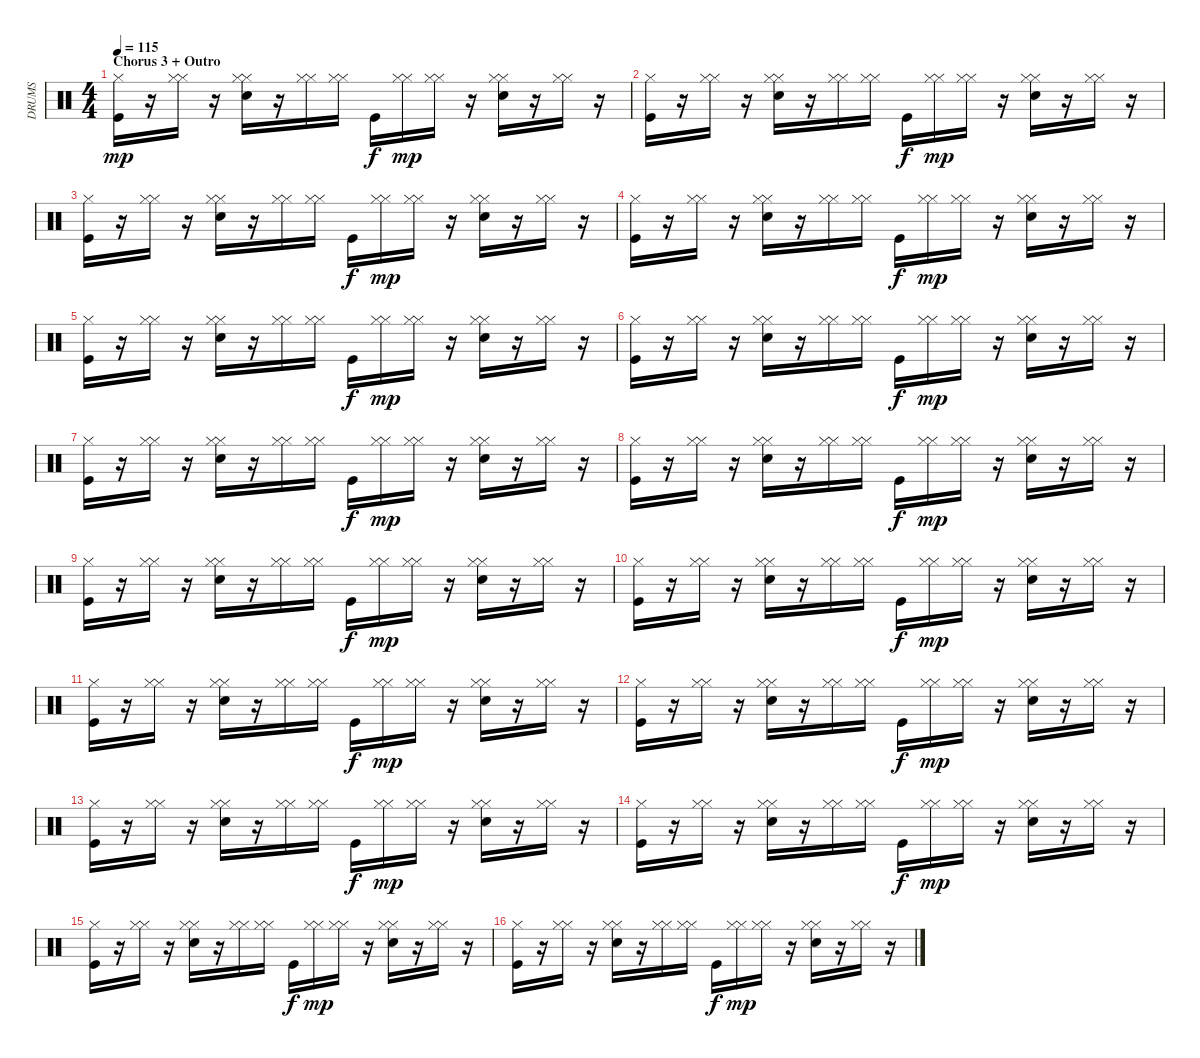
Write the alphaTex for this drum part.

\track ("DRUMS" "DRUMS") {instrument percussion}
\staff {score}
\articulation defaults
\ts (4 4)
\section ("" "Chorus 3 + Outro")
\tempo 115
\clef neutral
\ks c
("Kick (hit)" "Hi-Hat (closed)").16{dy mp} r.16 ("Hi-Hat (closed)" "Hi-Hat (closed)").16 r.16 ("Hi-Hat (closed)" "Snare (hit) 2" "Hi-Hat (closed)").16 r.16 ("Hi-Hat (closed)" "Hi-Hat (closed)").16 ("Hi-Hat (closed)" "Hi-Hat (closed)").16 "Kick (hit)".16{dy f} ("Hi-Hat (closed)" "Hi-Hat (closed)").16{dy mp} ("Hi-Hat (closed)" "Hi-Hat (closed)").16 r.16 ("Hi-Hat (closed)" "Snare (hit) 2" "Hi-Hat (closed)").16 r.16 ("Hi-Hat (closed)" "Hi-Hat (closed)").16 r.16 |
("Kick (hit)" "Hi-Hat (closed)").16 r.16 ("Hi-Hat (closed)" "Hi-Hat (closed)").16 r.16 ("Hi-Hat (closed)" "Snare (hit) 2" "Hi-Hat (closed)").16 r.16 ("Hi-Hat (closed)" "Hi-Hat (closed)").16 ("Hi-Hat (closed)" "Hi-Hat (closed)").16 "Kick (hit)".16{dy f} ("Hi-Hat (closed)" "Hi-Hat (closed)").16{dy mp} ("Hi-Hat (closed)" "Hi-Hat (closed)").16 r.16 ("Hi-Hat (closed)" "Snare (hit) 2" "Hi-Hat (closed)").16 r.16 ("Hi-Hat (closed)" "Hi-Hat (closed)").16 r.16 |
("Kick (hit)" "Hi-Hat (closed)").16 r.16 ("Hi-Hat (closed)" "Hi-Hat (closed)").16 r.16 ("Hi-Hat (closed)" "Snare (hit) 2" "Hi-Hat (closed)").16 r.16 ("Hi-Hat (closed)" "Hi-Hat (closed)").16 ("Hi-Hat (closed)" "Hi-Hat (closed)").16 "Kick (hit)".16{dy f} ("Hi-Hat (closed)" "Hi-Hat (closed)").16{dy mp} ("Hi-Hat (closed)" "Hi-Hat (closed)").16 r.16 ("Hi-Hat (closed)" "Snare (hit) 2" "Hi-Hat (closed)").16 r.16 ("Hi-Hat (closed)" "Hi-Hat (closed)").16 r.16 |
("Kick (hit)" "Hi-Hat (closed)").16 r.16 ("Hi-Hat (closed)" "Hi-Hat (closed)").16 r.16 ("Hi-Hat (closed)" "Snare (hit) 2" "Hi-Hat (closed)").16 r.16 ("Hi-Hat (closed)" "Hi-Hat (closed)").16 ("Hi-Hat (closed)" "Hi-Hat (closed)").16 "Kick (hit)".16{dy f} ("Hi-Hat (closed)" "Hi-Hat (closed)").16{dy mp} ("Hi-Hat (closed)" "Hi-Hat (closed)").16 r.16 ("Hi-Hat (closed)" "Snare (hit) 2" "Hi-Hat (closed)").16 r.16 ("Hi-Hat (closed)" "Hi-Hat (closed)").16 r.16 |
("Kick (hit)" "Hi-Hat (closed)").16 r.16 ("Hi-Hat (closed)" "Hi-Hat (closed)").16 r.16 ("Hi-Hat (closed)" "Snare (hit) 2" "Hi-Hat (closed)").16 r.16 ("Hi-Hat (closed)" "Hi-Hat (closed)").16 ("Hi-Hat (closed)" "Hi-Hat (closed)").16 "Kick (hit)".16{dy f} ("Hi-Hat (closed)" "Hi-Hat (closed)").16{dy mp} ("Hi-Hat (closed)" "Hi-Hat (closed)").16 r.16 ("Hi-Hat (closed)" "Snare (hit) 2" "Hi-Hat (closed)").16 r.16 ("Hi-Hat (closed)" "Hi-Hat (closed)").16 r.16 |
("Kick (hit)" "Hi-Hat (closed)").16 r.16 ("Hi-Hat (closed)" "Hi-Hat (closed)").16 r.16 ("Hi-Hat (closed)" "Snare (hit) 2" "Hi-Hat (closed)").16 r.16 ("Hi-Hat (closed)" "Hi-Hat (closed)").16 ("Hi-Hat (closed)" "Hi-Hat (closed)").16 "Kick (hit)".16{dy f} ("Hi-Hat (closed)" "Hi-Hat (closed)").16{dy mp} ("Hi-Hat (closed)" "Hi-Hat (closed)").16 r.16 ("Hi-Hat (closed)" "Snare (hit) 2" "Hi-Hat (closed)").16 r.16 ("Hi-Hat (closed)" "Hi-Hat (closed)").16 r.16 |
("Kick (hit)" "Hi-Hat (closed)").16 r.16 ("Hi-Hat (closed)" "Hi-Hat (closed)").16 r.16 ("Hi-Hat (closed)" "Snare (hit) 2" "Hi-Hat (closed)").16 r.16 ("Hi-Hat (closed)" "Hi-Hat (closed)").16 ("Hi-Hat (closed)" "Hi-Hat (closed)").16 "Kick (hit)".16{dy f} ("Hi-Hat (closed)" "Hi-Hat (closed)").16{dy mp} ("Hi-Hat (closed)" "Hi-Hat (closed)").16 r.16 ("Hi-Hat (closed)" "Snare (hit) 2" "Hi-Hat (closed)").16 r.16 ("Hi-Hat (closed)" "Hi-Hat (closed)").16 r.16 |
("Kick (hit)" "Hi-Hat (closed)").16 r.16 ("Hi-Hat (closed)" "Hi-Hat (closed)").16 r.16 ("Hi-Hat (closed)" "Snare (hit) 2" "Hi-Hat (closed)").16 r.16 ("Hi-Hat (closed)" "Hi-Hat (closed)").16 ("Hi-Hat (closed)" "Hi-Hat (closed)").16 "Kick (hit)".16{dy f} ("Hi-Hat (closed)" "Hi-Hat (closed)").16{dy mp} ("Hi-Hat (closed)" "Hi-Hat (closed)").16 r.16 ("Hi-Hat (closed)" "Snare (hit) 2" "Hi-Hat (closed)").16 r.16 ("Hi-Hat (closed)" "Hi-Hat (closed)").16 r.16 |
("Kick (hit)" "Hi-Hat (closed)").16 r.16 ("Hi-Hat (closed)" "Hi-Hat (closed)").16 r.16 ("Hi-Hat (closed)" "Snare (hit) 2" "Hi-Hat (closed)").16 r.16 ("Hi-Hat (closed)" "Hi-Hat (closed)").16 ("Hi-Hat (closed)" "Hi-Hat (closed)").16 "Kick (hit)".16{dy f} ("Hi-Hat (closed)" "Hi-Hat (closed)").16{dy mp} ("Hi-Hat (closed)" "Hi-Hat (closed)").16 r.16 ("Hi-Hat (closed)" "Snare (hit) 2" "Hi-Hat (closed)").16 r.16 ("Hi-Hat (closed)" "Hi-Hat (closed)").16 r.16 |
("Kick (hit)" "Hi-Hat (closed)").16 r.16 ("Hi-Hat (closed)" "Hi-Hat (closed)").16 r.16 ("Hi-Hat (closed)" "Snare (hit) 2" "Hi-Hat (closed)").16 r.16 ("Hi-Hat (closed)" "Hi-Hat (closed)").16 ("Hi-Hat (closed)" "Hi-Hat (closed)").16 "Kick (hit)".16{dy f} ("Hi-Hat (closed)" "Hi-Hat (closed)").16{dy mp} ("Hi-Hat (closed)" "Hi-Hat (closed)").16 r.16 ("Hi-Hat (closed)" "Snare (hit) 2" "Hi-Hat (closed)").16 r.16 ("Hi-Hat (closed)" "Hi-Hat (closed)").16 r.16 |
("Kick (hit)" "Hi-Hat (closed)").16 r.16 ("Hi-Hat (closed)" "Hi-Hat (closed)").16 r.16 ("Hi-Hat (closed)" "Snare (hit) 2" "Hi-Hat (closed)").16 r.16 ("Hi-Hat (closed)" "Hi-Hat (closed)").16 ("Hi-Hat (closed)" "Hi-Hat (closed)").16 "Kick (hit)".16{dy f} ("Hi-Hat (closed)" "Hi-Hat (closed)").16{dy mp} ("Hi-Hat (closed)" "Hi-Hat (closed)").16 r.16 ("Hi-Hat (closed)" "Snare (hit) 2" "Hi-Hat (closed)").16 r.16 ("Hi-Hat (closed)" "Hi-Hat (closed)").16 r.16 |
("Kick (hit)" "Hi-Hat (closed)").16 r.16 ("Hi-Hat (closed)" "Hi-Hat (closed)").16 r.16 ("Hi-Hat (closed)" "Snare (hit) 2" "Hi-Hat (closed)").16 r.16 ("Hi-Hat (closed)" "Hi-Hat (closed)").16 ("Hi-Hat (closed)" "Hi-Hat (closed)").16 "Kick (hit)".16{dy f} ("Hi-Hat (closed)" "Hi-Hat (closed)").16{dy mp} ("Hi-Hat (closed)" "Hi-Hat (closed)").16 r.16 ("Hi-Hat (closed)" "Snare (hit) 2" "Hi-Hat (closed)").16 r.16 ("Hi-Hat (closed)" "Hi-Hat (closed)").16 r.16 |
("Kick (hit)" "Hi-Hat (closed)").16 r.16 ("Hi-Hat (closed)" "Hi-Hat (closed)").16 r.16 ("Hi-Hat (closed)" "Snare (hit) 2" "Hi-Hat (closed)").16 r.16 ("Hi-Hat (closed)" "Hi-Hat (closed)").16 ("Hi-Hat (closed)" "Hi-Hat (closed)").16 "Kick (hit)".16{dy f} ("Hi-Hat (closed)" "Hi-Hat (closed)").16{dy mp} ("Hi-Hat (closed)" "Hi-Hat (closed)").16 r.16 ("Hi-Hat (closed)" "Snare (hit) 2" "Hi-Hat (closed)").16 r.16 ("Hi-Hat (closed)" "Hi-Hat (closed)").16 r.16 |
("Kick (hit)" "Hi-Hat (closed)").16 r.16 ("Hi-Hat (closed)" "Hi-Hat (closed)").16 r.16 ("Hi-Hat (closed)" "Snare (hit) 2" "Hi-Hat (closed)").16 r.16 ("Hi-Hat (closed)" "Hi-Hat (closed)").16 ("Hi-Hat (closed)" "Hi-Hat (closed)").16 "Kick (hit)".16{dy f} ("Hi-Hat (closed)" "Hi-Hat (closed)").16{dy mp} ("Hi-Hat (closed)" "Hi-Hat (closed)").16 r.16 ("Hi-Hat (closed)" "Snare (hit) 2" "Hi-Hat (closed)").16 r.16 ("Hi-Hat (closed)" "Hi-Hat (closed)").16 r.16 |
("Kick (hit)" "Hi-Hat (closed)").16 r.16 ("Hi-Hat (closed)" "Hi-Hat (closed)").16 r.16 ("Hi-Hat (closed)" "Snare (hit) 2" "Hi-Hat (closed)").16 r.16 ("Hi-Hat (closed)" "Hi-Hat (closed)").16 ("Hi-Hat (closed)" "Hi-Hat (closed)").16 "Kick (hit)".16{dy f} ("Hi-Hat (closed)" "Hi-Hat (closed)").16{dy mp} ("Hi-Hat (closed)" "Hi-Hat (closed)").16 r.16 ("Hi-Hat (closed)" "Snare (hit) 2" "Hi-Hat (closed)").16 r.16 ("Hi-Hat (closed)" "Hi-Hat (closed)").16 r.16 |
("Kick (hit)" "Hi-Hat (closed)").16 r.16 ("Hi-Hat (closed)" "Hi-Hat (closed)").16 r.16 ("Hi-Hat (closed)" "Snare (hit) 2" "Hi-Hat (closed)").16 r.16 ("Hi-Hat (closed)" "Hi-Hat (closed)").16 ("Hi-Hat (closed)" "Hi-Hat (closed)").16 "Kick (hit)".16{dy f} ("Hi-Hat (closed)" "Hi-Hat (closed)").16{dy mp} ("Hi-Hat (closed)" "Hi-Hat (closed)").16 r.16 ("Hi-Hat (closed)" "Snare (hit) 2" "Hi-Hat (closed)").16 r.16 ("Hi-Hat (closed)" "Hi-Hat (closed)").16 r.16
